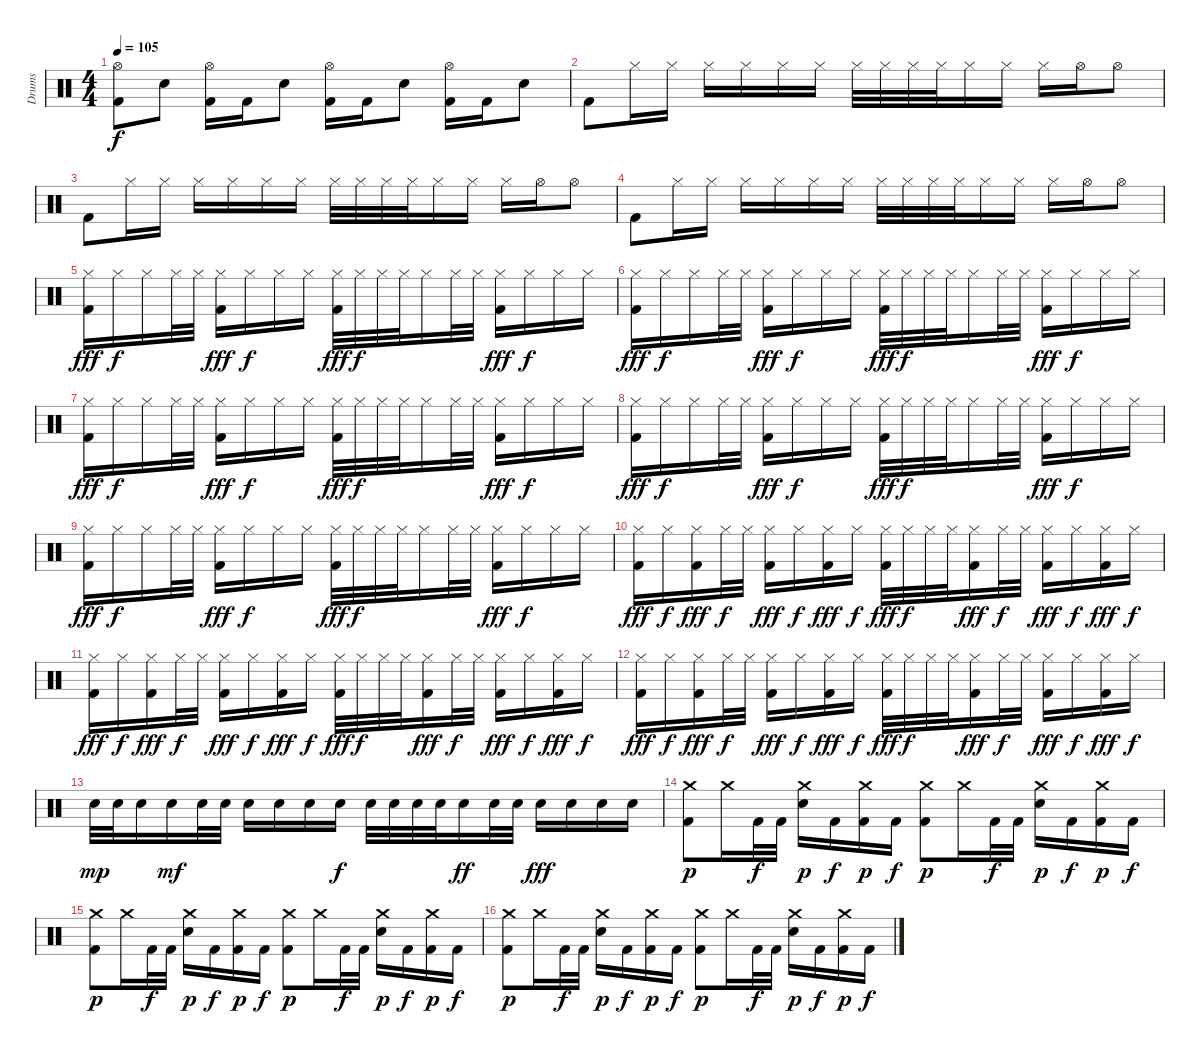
\track ("Drums" "Drums") {instrument percussion}
\staff {score}
\articulation defaults
\ts (4 4)
\tempo 105
\clef neutral
\ks c
("Hi-Hat (open)" "Kick (hit) 2").8{dy f} "Electric Snare (hit)".8 ("Hi-Hat (open)" "Kick (hit) 2").16 "Kick (hit) 2".16 "Electric Snare (hit)".8 ("Hi-Hat (open)" "Kick (hit) 2").16 "Kick (hit) 2".16 "Electric Snare (hit)".8 ("Hi-Hat (open)" "Kick (hit) 2").16 "Kick (hit) 2".16 "Electric Snare (hit)".8 |
"Kick (hit) 2".8 "Hi-Hat (closed)".16 "Hi-Hat (closed)".16 "Hi-Hat (closed)".16 "Hi-Hat (closed)".16 "Hi-Hat (closed)".16 "Hi-Hat (closed)".16 "Hi-Hat (closed)".32 "Hi-Hat (closed)".32 "Hi-Hat (closed)".32 "Hi-Hat (closed)".32 "Hi-Hat (closed)".16 "Hi-Hat (closed)".16 "Hi-Hat (closed)".16 "Hi-Hat (open)".16 "Hi-Hat (open)".8 |
"Kick (hit) 2".8 "Hi-Hat (closed)".16 "Hi-Hat (closed)".16 "Hi-Hat (closed)".16 "Hi-Hat (closed)".16 "Hi-Hat (closed)".16 "Hi-Hat (closed)".16 "Hi-Hat (closed)".32 "Hi-Hat (closed)".32 "Hi-Hat (closed)".32 "Hi-Hat (closed)".32 "Hi-Hat (closed)".16 "Hi-Hat (closed)".16 "Hi-Hat (closed)".16 "Hi-Hat (open)".16 "Hi-Hat (open)".8 |
"Kick (hit) 2".8 "Hi-Hat (closed)".16 "Hi-Hat (closed)".16 "Hi-Hat (closed)".16 "Hi-Hat (closed)".16 "Hi-Hat (closed)".16 "Hi-Hat (closed)".16 "Hi-Hat (closed)".32 "Hi-Hat (closed)".32 "Hi-Hat (closed)".32 "Hi-Hat (closed)".32 "Hi-Hat (closed)".16 "Hi-Hat (closed)".16 "Hi-Hat (closed)".16 "Hi-Hat (open)".16 "Hi-Hat (open)".8 |
("Hi-Hat (closed)" "Kick (hit) 2").16{dy fff} "Hi-Hat (closed)".16{dy f} "Hi-Hat (closed)".16 "Hi-Hat (closed)".32 "Hi-Hat (closed)".32 ("Hi-Hat (closed)" "Kick (hit) 2").16{dy fff} "Hi-Hat (closed)".16{dy f} "Hi-Hat (closed)".16 "Hi-Hat (closed)".16 ("Hi-Hat (closed)" "Kick (hit) 2").32{dy fff} "Hi-Hat (closed)".32{dy f} "Hi-Hat (closed)".32 "Hi-Hat (closed)".32 "Hi-Hat (closed)".16 "Hi-Hat (closed)".32 "Hi-Hat (closed)".32 ("Hi-Hat (closed)" "Kick (hit) 2").16{dy fff} "Hi-Hat (closed)".16{dy f} "Hi-Hat (closed)".16 "Hi-Hat (closed)".16 |
("Hi-Hat (closed)" "Kick (hit) 2").16{dy fff} "Hi-Hat (closed)".16{dy f} "Hi-Hat (closed)".16 "Hi-Hat (closed)".32 "Hi-Hat (closed)".32 ("Hi-Hat (closed)" "Kick (hit) 2").16{dy fff} "Hi-Hat (closed)".16{dy f} "Hi-Hat (closed)".16 "Hi-Hat (closed)".16 ("Hi-Hat (closed)" "Kick (hit) 2").32{dy fff} "Hi-Hat (closed)".32{dy f} "Hi-Hat (closed)".32 "Hi-Hat (closed)".32 "Hi-Hat (closed)".16 "Hi-Hat (closed)".32 "Hi-Hat (closed)".32 ("Hi-Hat (closed)" "Kick (hit) 2").16{dy fff} "Hi-Hat (closed)".16{dy f} "Hi-Hat (closed)".16 "Hi-Hat (closed)".16 |
("Hi-Hat (closed)" "Kick (hit) 2").16{dy fff} "Hi-Hat (closed)".16{dy f} "Hi-Hat (closed)".16 "Hi-Hat (closed)".32 "Hi-Hat (closed)".32 ("Hi-Hat (closed)" "Kick (hit) 2").16{dy fff} "Hi-Hat (closed)".16{dy f} "Hi-Hat (closed)".16 "Hi-Hat (closed)".16 ("Hi-Hat (closed)" "Kick (hit) 2").32{dy fff} "Hi-Hat (closed)".32{dy f} "Hi-Hat (closed)".32 "Hi-Hat (closed)".32 "Hi-Hat (closed)".16 "Hi-Hat (closed)".32 "Hi-Hat (closed)".32 ("Hi-Hat (closed)" "Kick (hit) 2").16{dy fff} "Hi-Hat (closed)".16{dy f} "Hi-Hat (closed)".16 "Hi-Hat (closed)".16 |
("Hi-Hat (closed)" "Kick (hit) 2").16{dy fff} "Hi-Hat (closed)".16{dy f} "Hi-Hat (closed)".16 "Hi-Hat (closed)".32 "Hi-Hat (closed)".32 ("Hi-Hat (closed)" "Kick (hit) 2").16{dy fff} "Hi-Hat (closed)".16{dy f} "Hi-Hat (closed)".16 "Hi-Hat (closed)".16 ("Hi-Hat (closed)" "Kick (hit) 2").32{dy fff} "Hi-Hat (closed)".32{dy f} "Hi-Hat (closed)".32 "Hi-Hat (closed)".32 "Hi-Hat (closed)".16 "Hi-Hat (closed)".32 "Hi-Hat (closed)".32 ("Hi-Hat (closed)" "Kick (hit) 2").16{dy fff} "Hi-Hat (closed)".16{dy f} "Hi-Hat (closed)".16 "Hi-Hat (closed)".16 |
("Hi-Hat (closed)" "Kick (hit) 2").16{dy fff} "Hi-Hat (closed)".16{dy f} "Hi-Hat (closed)".16 "Hi-Hat (closed)".32 "Hi-Hat (closed)".32 ("Hi-Hat (closed)" "Kick (hit) 2").16{dy fff} "Hi-Hat (closed)".16{dy f} "Hi-Hat (closed)".16 "Hi-Hat (closed)".16 ("Hi-Hat (closed)" "Kick (hit) 2").32{dy fff} "Hi-Hat (closed)".32{dy f} "Hi-Hat (closed)".32 "Hi-Hat (closed)".32 "Hi-Hat (closed)".16 "Hi-Hat (closed)".32 "Hi-Hat (closed)".32 ("Hi-Hat (closed)" "Kick (hit) 2").16{dy fff} "Hi-Hat (closed)".16{dy f} "Hi-Hat (closed)".16 "Hi-Hat (closed)".16 |
("Hi-Hat (closed)" "Kick (hit) 2").16{dy fff} "Hi-Hat (closed)".16{dy f} ("Hi-Hat (closed)" "Kick (hit) 2").16{dy fff} "Hi-Hat (closed)".32{dy f} "Hi-Hat (closed)".32 ("Hi-Hat (closed)" "Kick (hit) 2").16{dy fff} "Hi-Hat (closed)".16{dy f} ("Hi-Hat (closed)" "Kick (hit) 2").16{dy fff} "Hi-Hat (closed)".16{dy f} ("Hi-Hat (closed)" "Kick (hit) 2").32{dy fff} "Hi-Hat (closed)".32{dy f} "Hi-Hat (closed)".32 "Hi-Hat (closed)".32 ("Hi-Hat (closed)" "Kick (hit) 2").16{dy fff} "Hi-Hat (closed)".32{dy f} "Hi-Hat (closed)".32 ("Hi-Hat (closed)" "Kick (hit) 2").16{dy fff} "Hi-Hat (closed)".16{dy f} ("Hi-Hat (closed)" "Kick (hit) 2").16{dy fff} "Hi-Hat (closed)".16{dy f} |
("Hi-Hat (closed)" "Kick (hit) 2").16{dy fff} "Hi-Hat (closed)".16{dy f} ("Hi-Hat (closed)" "Kick (hit) 2").16{dy fff} "Hi-Hat (closed)".32{dy f} "Hi-Hat (closed)".32 ("Hi-Hat (closed)" "Kick (hit) 2").16{dy fff} "Hi-Hat (closed)".16{dy f} ("Hi-Hat (closed)" "Kick (hit) 2").16{dy fff} "Hi-Hat (closed)".16{dy f} ("Hi-Hat (closed)" "Kick (hit) 2").32{dy fff} "Hi-Hat (closed)".32{dy f} "Hi-Hat (closed)".32 "Hi-Hat (closed)".32 ("Hi-Hat (closed)" "Kick (hit) 2").16{dy fff} "Hi-Hat (closed)".32{dy f} "Hi-Hat (closed)".32 ("Hi-Hat (closed)" "Kick (hit) 2").16{dy fff} "Hi-Hat (closed)".16{dy f} ("Hi-Hat (closed)" "Kick (hit) 2").16{dy fff} "Hi-Hat (closed)".16{dy f} |
("Hi-Hat (closed)" "Kick (hit) 2").16{dy fff} "Hi-Hat (closed)".16{dy f} ("Hi-Hat (closed)" "Kick (hit) 2").16{dy fff} "Hi-Hat (closed)".32{dy f} "Hi-Hat (closed)".32 ("Hi-Hat (closed)" "Kick (hit) 2").16{dy fff} "Hi-Hat (closed)".16{dy f} ("Hi-Hat (closed)" "Kick (hit) 2").16{dy fff} "Hi-Hat (closed)".16{dy f} ("Hi-Hat (closed)" "Kick (hit) 2").32{dy fff} "Hi-Hat (closed)".32{dy f} "Hi-Hat (closed)".32 "Hi-Hat (closed)".32 ("Hi-Hat (closed)" "Kick (hit) 2").16{dy fff} "Hi-Hat (closed)".32{dy f} "Hi-Hat (closed)".32 ("Hi-Hat (closed)" "Kick (hit) 2").16{dy fff} "Hi-Hat (closed)".16{dy f} ("Hi-Hat (closed)" "Kick (hit) 2").16{dy fff} "Hi-Hat (closed)".16{dy f} |
"Electric Snare (hit)".32{dy mp} "Electric Snare (hit)".32 "Electric Snare (hit)".16 "Electric Snare (hit)".16{dy mf} "Electric Snare (hit)".32 "Electric Snare (hit)".32 "Electric Snare (hit)".16 "Electric Snare (hit)".16 "Electric Snare (hit)".16 "Electric Snare (hit)".16{dy f} "Electric Snare (hit)".32 "Electric Snare (hit)".32 "Electric Snare (hit)".32 "Electric Snare (hit)".32 "Electric Snare (hit)".16{dy ff} "Electric Snare (hit)".32 "Electric Snare (hit)".32 "Electric Snare (hit)".16{dy fff} "Electric Snare (hit)".16 "Electric Snare (hit)".16 "Electric Snare (hit)".16 |
("Crash medium (hit)" "Kick (hit) 2").8{dy p} "Crash medium (hit)".16 "Kick (hit) 2".32{dy f} "Kick (hit) 2".32 ("Crash medium (hit)" "Electric Snare (hit)").16{dy p} "Kick (hit) 2".16{dy f} ("Crash medium (hit)" "Kick (hit) 2").16{dy p} "Kick (hit) 2".16{dy f} ("Crash medium (hit)" "Kick (hit) 2").8{dy p} "Crash medium (hit)".16 "Kick (hit) 2".32{dy f} "Kick (hit) 2".32 ("Crash medium (hit)" "Electric Snare (hit)").16{dy p} "Kick (hit) 2".16{dy f} ("Crash medium (hit)" "Kick (hit) 2").16{dy p} "Kick (hit) 2".16{dy f} |
("Crash medium (hit)" "Kick (hit) 2").8{dy p} "Crash medium (hit)".16 "Kick (hit) 2".32{dy f} "Kick (hit) 2".32 ("Crash medium (hit)" "Electric Snare (hit)").16{dy p} "Kick (hit) 2".16{dy f} ("Crash medium (hit)" "Kick (hit) 2").16{dy p} "Kick (hit) 2".16{dy f} ("Crash medium (hit)" "Kick (hit) 2").8{dy p} "Crash medium (hit)".16 "Kick (hit) 2".32{dy f} "Kick (hit) 2".32 ("Crash medium (hit)" "Electric Snare (hit)").16{dy p} "Kick (hit) 2".16{dy f} ("Crash medium (hit)" "Kick (hit) 2").16{dy p} "Kick (hit) 2".16{dy f} |
("Crash medium (hit)" "Kick (hit) 2").8{dy p} "Crash medium (hit)".16 "Kick (hit) 2".32{dy f} "Kick (hit) 2".32 ("Crash medium (hit)" "Electric Snare (hit)").16{dy p} "Kick (hit) 2".16{dy f} ("Crash medium (hit)" "Kick (hit) 2").16{dy p} "Kick (hit) 2".16{dy f} ("Crash medium (hit)" "Kick (hit) 2").8{dy p} "Crash medium (hit)".16 "Kick (hit) 2".32{dy f} "Kick (hit) 2".32 ("Crash medium (hit)" "Electric Snare (hit)").16{dy p} "Kick (hit) 2".16{dy f} ("Crash medium (hit)" "Kick (hit) 2").16{dy p} "Kick (hit) 2".16{dy f}
